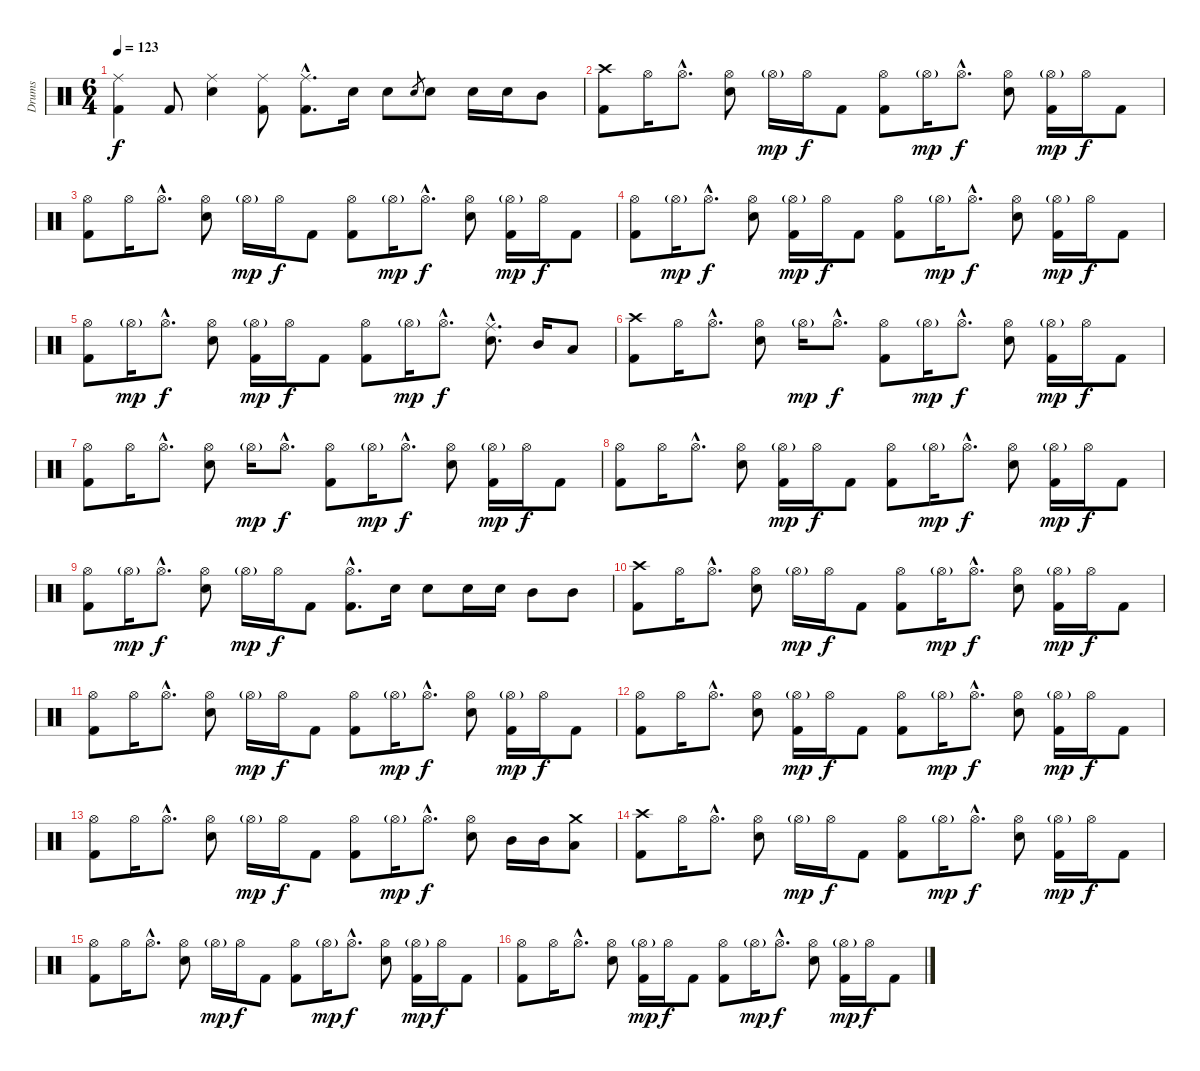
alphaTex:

\track ("Drums" "Drums") {instrument percussion}
\staff {score}
\articulation defaults
\ts (6 4)
\tempo 123
\clef neutral
\ks c
("Ride (middle)" "Kick (hit) 2").4{dy f} "Kick (hit) 2".8 ("Ride (middle)" "Snare (hit) 2").4 ("Ride (middle)" "Kick (hit) 2").8 ("Ride (middle)"{hac} "Kick (hit) 2"{hac}).8{d} "Snare (hit) 2".16 "Snare (hit) 2".8 "Snare (hit) 2".8{gr} "Snare (hit) 2".8 "Snare (hit) 2".16 "Snare (hit) 2".16 "Mid Tom (hit)".8 |
("Crash high (hit)" "Kick (hit) 2").8 "Hi-Hat (open)".16 "Hi-Hat (open)"{hac}.8{d} ("Hi-Hat (open)" "Snare (hit) 2").8 "Hi-Hat (open)"{g}.16{dy mp} "Hi-Hat (open)".16{dy f} "Kick (hit) 2".8 ("Hi-Hat (open)" "Kick (hit) 2").8 "Hi-Hat (open)"{g}.16{dy mp} "Hi-Hat (open)"{hac}.8{d dy f} ("Hi-Hat (open)" "Snare (hit) 2").8 ("Hi-Hat (open)"{g} "Kick (hit) 2").16{dy mp} "Hi-Hat (open)".16{dy f} "Kick (hit) 2".8 |
("Hi-Hat (open)" "Kick (hit) 2").8 "Hi-Hat (open)".16 "Hi-Hat (open)"{hac}.8{d} ("Hi-Hat (open)" "Snare (hit) 2").8 "Hi-Hat (open)"{g}.16{dy mp} "Hi-Hat (open)".16{dy f} "Kick (hit) 2".8 ("Hi-Hat (open)" "Kick (hit) 2").8 "Hi-Hat (open)"{g}.16{dy mp} "Hi-Hat (open)"{hac}.8{d dy f} ("Hi-Hat (open)" "Snare (hit) 2").8 ("Hi-Hat (open)"{g} "Kick (hit) 2").16{dy mp} "Hi-Hat (open)".16{dy f} "Kick (hit) 2".8 |
("Hi-Hat (open)" "Kick (hit) 2").8 "Hi-Hat (open)"{g}.16{dy mp} "Hi-Hat (open)"{hac}.8{d dy f} ("Hi-Hat (open)" "Snare (hit) 2").8 ("Hi-Hat (open)"{g} "Kick (hit) 2").16{dy mp} "Hi-Hat (open)".16{dy f} "Kick (hit) 2".8 ("Hi-Hat (open)" "Kick (hit) 2").8 "Hi-Hat (open)"{g}.16{dy mp} "Hi-Hat (open)"{hac}.8{d dy f} ("Hi-Hat (open)" "Snare (hit) 2").8 ("Hi-Hat (open)"{g} "Kick (hit) 2").16{dy mp} "Hi-Hat (open)".16{dy f} "Kick (hit) 2".8 |
("Hi-Hat (open)" "Kick (hit) 2").8 "Hi-Hat (open)"{g}.16{dy mp} "Hi-Hat (open)"{hac}.8{d dy f} ("Hi-Hat (open)" "Snare (hit) 2").8 ("Hi-Hat (open)"{g} "Kick (hit) 2").16{dy mp} "Hi-Hat (open)".16{dy f} "Kick (hit) 2".8 ("Hi-Hat (open)" "Kick (hit) 2").8 "Hi-Hat (open)"{g}.16{dy mp} "Hi-Hat (open)"{hac}.8{d dy f} ("Ride (middle)"{hac} "Snare (hit) 2"{hac}).8{d} "Mid Tom (hit)".16 "Low Tom (hit)".8 |
("Crash high (hit)" "Kick (hit) 2").8 "Hi-Hat (open)".16 "Hi-Hat (open)"{hac}.8{d} ("Hi-Hat (open)" "Snare (hit) 2").8 "Hi-Hat (open)"{g}.16{dy mp} "Hi-Hat (open)"{hac}.8{d dy f} ("Hi-Hat (open)" "Kick (hit) 2").8 "Hi-Hat (open)"{g}.16{dy mp} "Hi-Hat (open)"{hac}.8{d dy f} ("Hi-Hat (open)" "Snare (hit) 2").8 ("Hi-Hat (open)"{g} "Kick (hit) 2").16{dy mp} "Hi-Hat (open)".16{dy f} "Kick (hit) 2".8 |
("Hi-Hat (open)" "Kick (hit) 2").8 "Hi-Hat (open)".16 "Hi-Hat (open)"{hac}.8{d} ("Hi-Hat (open)" "Snare (hit) 2").8 "Hi-Hat (open)"{g}.16{dy mp} "Hi-Hat (open)"{hac}.8{d dy f} ("Hi-Hat (open)" "Kick (hit) 2").8 "Hi-Hat (open)"{g}.16{dy mp} "Hi-Hat (open)"{hac}.8{d dy f} ("Hi-Hat (open)" "Snare (hit) 2").8 ("Hi-Hat (open)"{g} "Kick (hit) 2").16{dy mp} "Hi-Hat (open)".16{dy f} "Kick (hit) 2".8 |
("Hi-Hat (open)" "Kick (hit) 2").8 "Hi-Hat (open)".16 "Hi-Hat (open)"{hac}.8{d} ("Hi-Hat (open)" "Snare (hit) 2").8 ("Hi-Hat (open)"{g} "Kick (hit) 2").16{dy mp} "Hi-Hat (open)".16{dy f} "Kick (hit) 2".8 ("Hi-Hat (open)" "Kick (hit) 2").8 "Hi-Hat (open)"{g}.16{dy mp} "Hi-Hat (open)"{hac}.8{d dy f} ("Hi-Hat (open)" "Snare (hit) 2").8 ("Hi-Hat (open)"{g} "Kick (hit) 2").16{dy mp} "Hi-Hat (open)".16{dy f} "Kick (hit) 2".8 |
("Hi-Hat (open)" "Kick (hit) 2").8 "Hi-Hat (open)"{g}.16{dy mp} "Hi-Hat (open)"{hac}.8{d dy f} ("Hi-Hat (open)" "Snare (hit) 2").8 "Hi-Hat (open)"{g}.16{dy mp} "Hi-Hat (open)".16{dy f} "Kick (hit) 2".8 ("Hi-Hat (open)"{hac} "Kick (hit) 2"{hac}).8{d} "Snare (hit) 2".16 "Snare (hit) 2".8 "Snare (hit) 2".16 "Snare (hit) 2".16 "Mid Tom (hit)".8 "Mid Tom (hit)".8 |
("Crash high (hit)" "Kick (hit) 2").8 "Hi-Hat (open)".16 "Hi-Hat (open)"{hac}.8{d} ("Hi-Hat (open)" "Snare (hit) 2").8 "Hi-Hat (open)"{g}.16{dy mp} "Hi-Hat (open)".16{dy f} "Kick (hit) 2".8 ("Hi-Hat (open)" "Kick (hit) 2").8 "Hi-Hat (open)"{g}.16{dy mp} "Hi-Hat (open)"{hac}.8{d dy f} ("Hi-Hat (open)" "Snare (hit) 2").8 ("Hi-Hat (open)"{g} "Kick (hit) 2").16{dy mp} "Hi-Hat (open)".16{dy f} "Kick (hit) 2".8 |
("Hi-Hat (open)" "Kick (hit) 2").8 "Hi-Hat (open)".16 "Hi-Hat (open)"{hac}.8{d} ("Hi-Hat (open)" "Snare (hit) 2").8 "Hi-Hat (open)"{g}.16{dy mp} "Hi-Hat (open)".16{dy f} "Kick (hit) 2".8 ("Hi-Hat (open)" "Kick (hit) 2").8 "Hi-Hat (open)"{g}.16{dy mp} "Hi-Hat (open)"{hac}.8{d dy f} ("Hi-Hat (open)" "Snare (hit) 2").8 ("Hi-Hat (open)"{g} "Kick (hit) 2").16{dy mp} "Hi-Hat (open)".16{dy f} "Kick (hit) 2".8 |
("Hi-Hat (open)" "Kick (hit) 2").8 "Hi-Hat (open)".16 "Hi-Hat (open)"{hac}.8{d} ("Hi-Hat (open)" "Snare (hit) 2").8 ("Hi-Hat (open)"{g} "Kick (hit) 2").16{dy mp} "Hi-Hat (open)".16{dy f} "Kick (hit) 2".8 ("Hi-Hat (open)" "Kick (hit) 2").8 "Hi-Hat (open)"{g}.16{dy mp} "Hi-Hat (open)"{hac}.8{d dy f} ("Hi-Hat (open)" "Snare (hit) 2").8 ("Hi-Hat (open)"{g} "Kick (hit) 2").16{dy mp} "Hi-Hat (open)".16{dy f} "Kick (hit) 2".8 |
("Hi-Hat (open)" "Kick (hit) 2").8 "Hi-Hat (open)".16 "Hi-Hat (open)"{hac}.8{d} ("Hi-Hat (open)" "Snare (hit) 2").8 "Hi-Hat (open)"{g}.16{dy mp} "Hi-Hat (open)".16{dy f} "Kick (hit) 2".8 ("Hi-Hat (open)" "Kick (hit) 2").8 "Hi-Hat (open)"{g}.16{dy mp} "Hi-Hat (open)"{hac}.8{d dy f} ("Hi-Hat (open)" "Snare (hit) 2").8 "Mid Tom (hit)".16 "Mid Tom (hit)".16 ("Crash medium (hit)" "Low Tom (hit)").8 |
("Crash high (hit)" "Kick (hit) 2").8 "Hi-Hat (open)".16 "Hi-Hat (open)"{hac}.8{d} ("Hi-Hat (open)" "Snare (hit) 2").8 "Hi-Hat (open)"{g}.16{dy mp} "Hi-Hat (open)".16{dy f} "Kick (hit) 2".8 ("Hi-Hat (open)" "Kick (hit) 2").8 "Hi-Hat (open)"{g}.16{dy mp} "Hi-Hat (open)"{hac}.8{d dy f} ("Hi-Hat (open)" "Snare (hit) 2").8 ("Hi-Hat (open)"{g} "Kick (hit) 2").16{dy mp} "Hi-Hat (open)".16{dy f} "Kick (hit) 2".8 |
("Hi-Hat (open)" "Kick (hit) 2").8 "Hi-Hat (open)".16 "Hi-Hat (open)"{hac}.8{d} ("Hi-Hat (open)" "Snare (hit) 2").8 "Hi-Hat (open)"{g}.16{dy mp} "Hi-Hat (open)".16{dy f} "Kick (hit) 2".8 ("Hi-Hat (open)" "Kick (hit) 2").8 "Hi-Hat (open)"{g}.16{dy mp} "Hi-Hat (open)"{hac}.8{d dy f} ("Hi-Hat (open)" "Snare (hit) 2").8 ("Hi-Hat (open)"{g} "Kick (hit) 2").16{dy mp} "Hi-Hat (open)".16{dy f} "Kick (hit) 2".8 |
("Hi-Hat (open)" "Kick (hit) 2").8 "Hi-Hat (open)".16 "Hi-Hat (open)"{hac}.8{d} ("Hi-Hat (open)" "Snare (hit) 2").8 ("Hi-Hat (open)"{g} "Kick (hit) 2").16{dy mp} "Hi-Hat (open)".16{dy f} "Kick (hit) 2".8 ("Hi-Hat (open)" "Kick (hit) 2").8 "Hi-Hat (open)"{g}.16{dy mp} "Hi-Hat (open)"{hac}.8{d dy f} ("Hi-Hat (open)" "Snare (hit) 2").8 ("Hi-Hat (open)"{g} "Kick (hit) 2").16{dy mp} "Hi-Hat (open)".16{dy f} "Kick (hit) 2".8
